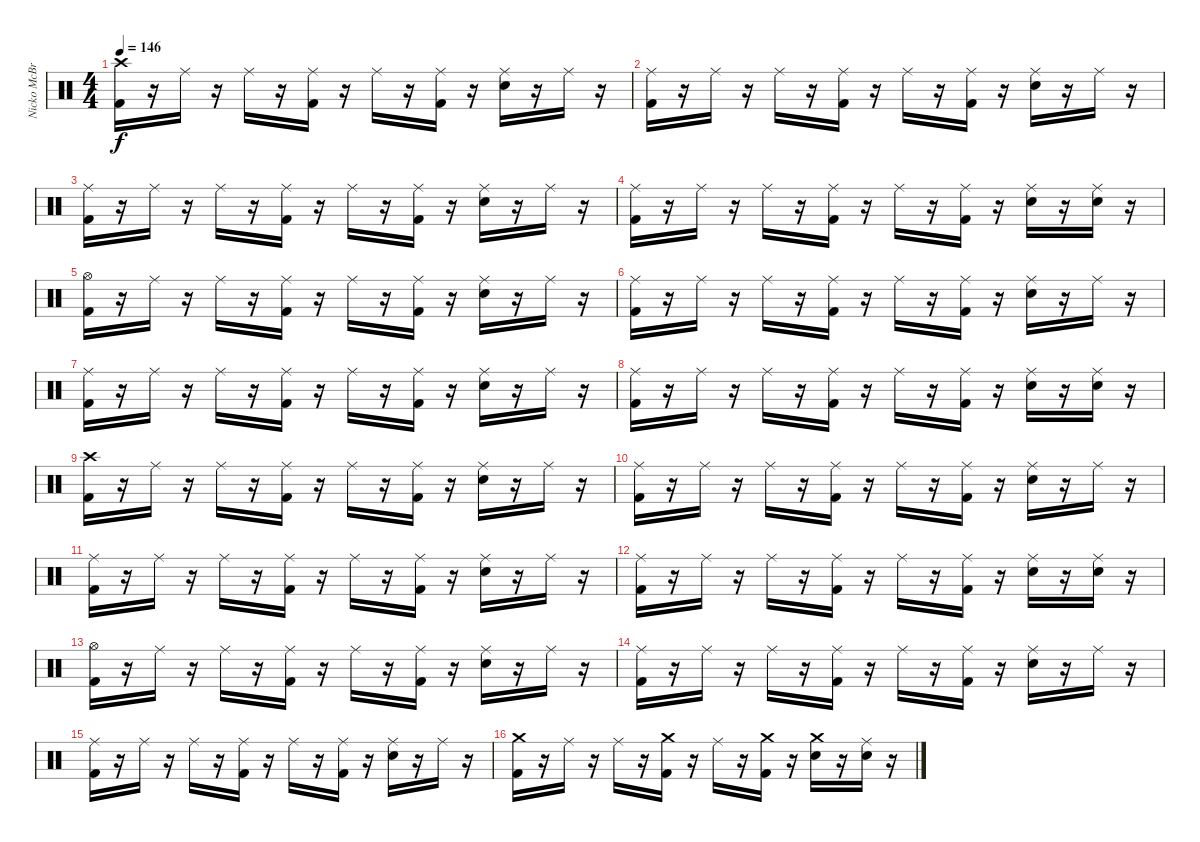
\track ("Nicko McBrain" "Nicko McBr") {instrument percussion}
\staff {score}
\articulation defaults
\ts (4 4)
\tempo 146
\clef neutral
\ks c
("Crash high (hit)" "Kick (hit) 2").16{dy f} r.16 "Ride (middle)".16 r.16 "Ride (middle)".16 r.16 ("Ride (middle)" "Kick (hit) 2").16 r.16 "Ride (middle)".16 r.16 ("Ride (middle)" "Kick (hit) 2").16 r.16 ("Ride (middle)" "Snare (hit) 2").16 r.16 "Ride (middle)".16 r.16 |
("Ride (middle)" "Kick (hit) 2").16 r.16 "Ride (middle)".16 r.16 "Ride (middle)".16 r.16 ("Ride (middle)" "Kick (hit) 2").16 r.16 "Ride (middle)".16 r.16 ("Ride (middle)" "Kick (hit) 2").16 r.16 ("Ride (middle)" "Snare (hit) 2").16 r.16 "Ride (middle)".16 r.16 |
("Ride (middle)" "Kick (hit) 2").16 r.16 "Ride (middle)".16 r.16 "Ride (middle)".16 r.16 ("Ride (middle)" "Kick (hit) 2").16 r.16 "Ride (middle)".16 r.16 ("Ride (middle)" "Kick (hit) 2").16 r.16 ("Ride (middle)" "Snare (hit) 2").16 r.16 "Ride (middle)".16 r.16 |
("Ride (middle)" "Kick (hit) 2").16 r.16 "Ride (middle)".16 r.16 "Ride (middle)".16 r.16 ("Ride (middle)" "Kick (hit) 2").16 r.16 "Ride (middle)".16 r.16 ("Ride (middle)" "Kick (hit) 2").16 r.16 ("Ride (middle)" "Snare (hit) 2").16 r.16 ("Ride (middle)" "Snare (hit) 2").16 r.16 |
("Hi-Hat (open)" "Kick (hit) 2").16 r.16 "Ride (middle)".16 r.16 "Ride (middle)".16 r.16 ("Ride (middle)" "Kick (hit) 2").16 r.16 "Ride (middle)".16 r.16 ("Ride (middle)" "Kick (hit) 2").16 r.16 ("Ride (middle)" "Snare (hit) 2").16 r.16 "Ride (middle)".16 r.16 |
("Ride (middle)" "Kick (hit) 2").16 r.16 "Ride (middle)".16 r.16 "Ride (middle)".16 r.16 ("Ride (middle)" "Kick (hit) 2").16 r.16 "Ride (middle)".16 r.16 ("Ride (middle)" "Kick (hit) 2").16 r.16 ("Ride (middle)" "Snare (hit) 2").16 r.16 "Ride (middle)".16 r.16 |
("Ride (middle)" "Kick (hit) 2").16 r.16 "Ride (middle)".16 r.16 "Ride (middle)".16 r.16 ("Ride (middle)" "Kick (hit) 2").16 r.16 "Ride (middle)".16 r.16 ("Ride (middle)" "Kick (hit) 2").16 r.16 ("Ride (middle)" "Snare (hit) 2").16 r.16 "Ride (middle)".16 r.16 |
("Ride (middle)" "Kick (hit) 2").16 r.16 "Ride (middle)".16 r.16 "Ride (middle)".16 r.16 ("Ride (middle)" "Kick (hit) 2").16 r.16 "Ride (middle)".16 r.16 ("Ride (middle)" "Kick (hit) 2").16 r.16 ("Ride (middle)" "Snare (hit) 2").16 r.16 ("Ride (middle)" "Snare (hit) 2").16 r.16 |
("Crash high (hit)" "Kick (hit) 2").16 r.16 "Ride (middle)".16 r.16 "Ride (middle)".16 r.16 ("Ride (middle)" "Kick (hit) 2").16 r.16 "Ride (middle)".16 r.16 ("Ride (middle)" "Kick (hit) 2").16 r.16 ("Ride (middle)" "Snare (hit) 2").16 r.16 "Ride (middle)".16 r.16 |
("Ride (middle)" "Kick (hit) 2").16 r.16 "Ride (middle)".16 r.16 "Ride (middle)".16 r.16 ("Ride (middle)" "Kick (hit) 2").16 r.16 "Ride (middle)".16 r.16 ("Ride (middle)" "Kick (hit) 2").16 r.16 ("Ride (middle)" "Snare (hit) 2").16 r.16 "Ride (middle)".16 r.16 |
("Ride (middle)" "Kick (hit) 2").16 r.16 "Ride (middle)".16 r.16 "Ride (middle)".16 r.16 ("Ride (middle)" "Kick (hit) 2").16 r.16 "Ride (middle)".16 r.16 ("Ride (middle)" "Kick (hit) 2").16 r.16 ("Ride (middle)" "Snare (hit) 2").16 r.16 "Ride (middle)".16 r.16 |
("Ride (middle)" "Kick (hit) 2").16 r.16 "Ride (middle)".16 r.16 "Ride (middle)".16 r.16 ("Ride (middle)" "Kick (hit) 2").16 r.16 "Ride (middle)".16 r.16 ("Ride (middle)" "Kick (hit) 2").16 r.16 ("Ride (middle)" "Snare (hit) 2").16 r.16 ("Ride (middle)" "Snare (hit) 2").16 r.16 |
("Hi-Hat (open)" "Kick (hit) 2").16 r.16 "Ride (middle)".16 r.16 "Ride (middle)".16 r.16 ("Ride (middle)" "Kick (hit) 2").16 r.16 "Ride (middle)".16 r.16 ("Ride (middle)" "Kick (hit) 2").16 r.16 ("Ride (middle)" "Snare (hit) 2").16 r.16 "Ride (middle)".16 r.16 |
("Ride (middle)" "Kick (hit) 2").16 r.16 "Ride (middle)".16 r.16 "Ride (middle)".16 r.16 ("Ride (middle)" "Kick (hit) 2").16 r.16 "Ride (middle)".16 r.16 ("Ride (middle)" "Kick (hit) 2").16 r.16 ("Ride (middle)" "Snare (hit) 2").16 r.16 "Ride (middle)".16 r.16 |
("Ride (middle)" "Kick (hit) 2").16 r.16 "Ride (middle)".16 r.16 "Ride (middle)".16 r.16 ("Ride (middle)" "Kick (hit) 2").16 r.16 "Ride (middle)".16 r.16 ("Ride (middle)" "Kick (hit) 2").16 r.16 ("Ride (middle)" "Snare (hit) 2").16 r.16 "Ride (middle)".16 r.16 |
("Crash medium (hit)" "Kick (hit) 2").16 r.16 "Ride (middle)".16 r.16 "Ride (middle)".16 r.16 ("Crash medium (hit)" "Kick (hit) 2").16 r.16 "Ride (middle)".16 r.16 ("Crash medium (hit)" "Kick (hit) 2").16 r.16 ("Crash medium (hit)" "Snare (hit) 2").16 r.16 ("Ride (middle)" "Snare (hit) 2").16 r.16
